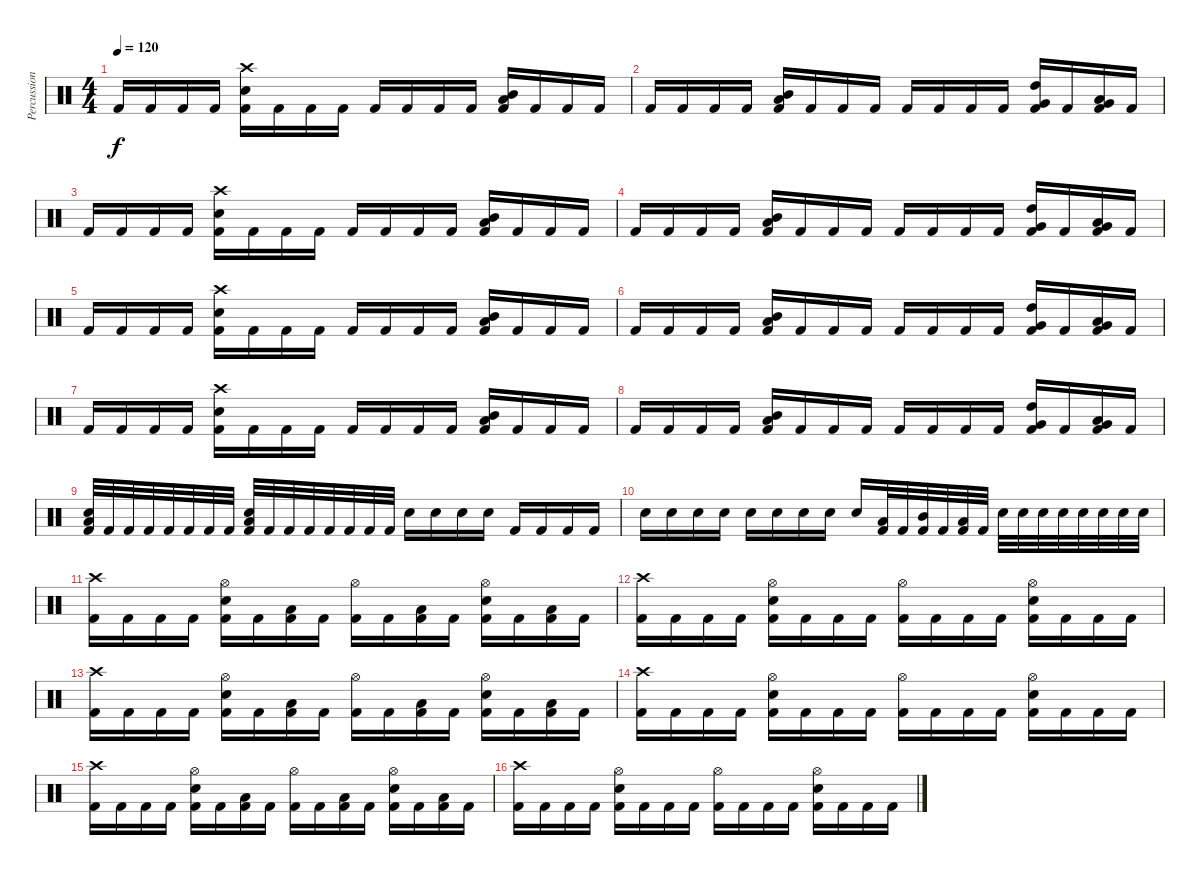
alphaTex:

\track ("Percussion" "Percussion") {instrument percussion}
\staff {score}
\articulation defaults
\ts (4 4)
\tempo 120
\clef neutral
\ks c "Kick (hit) 2".16{dy f} "Kick (hit) 2".16 "Kick (hit) 2".16 "Kick (hit) 2".16
("Kick (hit) 2" "Snare (hit) 2" "Crash high (hit)").16 "Kick (hit) 2".16 "Kick (hit) 2".16 "Kick (hit) 2".16 "Kick (hit) 2".16 "Kick (hit) 2".16 "Kick (hit) 2".16 "Kick (hit) 2".16 ("Kick (hit) 2" "Low Tom (hit)" "Mid Tom (hit)").16 "Kick (hit) 2".16 "Kick (hit) 2".16 "Kick (hit) 2".16 |
"Kick (hit) 2".16 "Kick (hit) 2".16 "Kick (hit) 2".16 "Kick (hit) 2".16 ("Kick (hit) 2" "Mid Tom (hit)" "Low Tom (hit)").16 "Kick (hit) 2".16 "Kick (hit) 2".16 "Kick (hit) 2".16 "Kick (hit) 2".16 "Kick (hit) 2".16 "Kick (hit) 2".16 "Kick (hit) 2".16 ("Kick (hit) 2" "Very Low Tom (hit)" "High Tom (hit)").16 "Kick (hit) 2".16 ("Kick (hit) 2" "Low Floor Tom (hit)" "Very Low Tom (hit)").16 "Kick (hit) 2".16 |
"Kick (hit) 2".16 "Kick (hit) 2".16 "Kick (hit) 2".16 "Kick (hit) 2".16 ("Kick (hit) 2" "Snare (hit) 2" "Crash high (hit)").16 "Kick (hit) 2".16 "Kick (hit) 2".16 "Kick (hit) 2".16 "Kick (hit) 2".16 "Kick (hit) 2".16 "Kick (hit) 2".16 "Kick (hit) 2".16 ("Kick (hit) 2" "Low Tom (hit)" "Mid Tom (hit)").16 "Kick (hit) 2".16 "Kick (hit) 2".16 "Kick (hit) 2".16 |
"Kick (hit) 2".16 "Kick (hit) 2".16 "Kick (hit) 2".16 "Kick (hit) 2".16 ("Kick (hit) 2" "Mid Tom (hit)" "Low Tom (hit)").16 "Kick (hit) 2".16 "Kick (hit) 2".16 "Kick (hit) 2".16 "Kick (hit) 2".16 "Kick (hit) 2".16 "Kick (hit) 2".16 "Kick (hit) 2".16 ("Kick (hit) 2" "Very Low Tom (hit)" "High Tom (hit)").16 "Kick (hit) 2".16 ("Kick (hit) 2" "Low Floor Tom (hit)" "Very Low Tom (hit)").16 "Kick (hit) 2".16 |
"Kick (hit) 2".16 "Kick (hit) 2".16 "Kick (hit) 2".16 "Kick (hit) 2".16 ("Kick (hit) 2" "Snare (hit) 2" "Crash high (hit)").16 "Kick (hit) 2".16 "Kick (hit) 2".16 "Kick (hit) 2".16 "Kick (hit) 2".16 "Kick (hit) 2".16 "Kick (hit) 2".16 "Kick (hit) 2".16 ("Kick (hit) 2" "Low Tom (hit)" "Mid Tom (hit)").16 "Kick (hit) 2".16 "Kick (hit) 2".16 "Kick (hit) 2".16 |
"Kick (hit) 2".16 "Kick (hit) 2".16 "Kick (hit) 2".16 "Kick (hit) 2".16 ("Kick (hit) 2" "Mid Tom (hit)" "Low Tom (hit)").16 "Kick (hit) 2".16 "Kick (hit) 2".16 "Kick (hit) 2".16 "Kick (hit) 2".16 "Kick (hit) 2".16 "Kick (hit) 2".16 "Kick (hit) 2".16 ("Kick (hit) 2" "Very Low Tom (hit)" "High Tom (hit)").16 "Kick (hit) 2".16 ("Kick (hit) 2" "Low Floor Tom (hit)" "Very Low Tom (hit)").16 "Kick (hit) 2".16 |
"Kick (hit) 2".16 "Kick (hit) 2".16 "Kick (hit) 2".16 "Kick (hit) 2".16 ("Kick (hit) 2" "Snare (hit) 2" "Crash high (hit)").16 "Kick (hit) 2".16 "Kick (hit) 2".16 "Kick (hit) 2".16 "Kick (hit) 2".16 "Kick (hit) 2".16 "Kick (hit) 2".16 "Kick (hit) 2".16 ("Kick (hit) 2" "Low Tom (hit)" "Mid Tom (hit)").16 "Kick (hit) 2".16 "Kick (hit) 2".16 "Kick (hit) 2".16 |
"Kick (hit) 2".16 "Kick (hit) 2".16 "Kick (hit) 2".16 "Kick (hit) 2".16 ("Kick (hit) 2" "Mid Tom (hit)" "Low Tom (hit)").16 "Kick (hit) 2".16 "Kick (hit) 2".16 "Kick (hit) 2".16 "Kick (hit) 2".16 "Kick (hit) 2".16 "Kick (hit) 2".16 "Kick (hit) 2".16 ("Kick (hit) 2" "Very Low Tom (hit)" "High Tom (hit)").16 "Kick (hit) 2".16 ("Kick (hit) 2" "Low Floor Tom (hit)" "Very Low Tom (hit)").16 "Kick (hit) 2".16 |
("Kick (hit) 2" "Snare (hit) 2" "Low Floor Tom (hit)").32 "Kick (hit) 2".32 "Kick (hit) 2".32 "Kick (hit) 2".32 "Kick (hit) 2".32 "Kick (hit) 2".32 "Kick (hit) 2".32 "Kick (hit) 2".32 ("Kick (hit) 2" "Snare (hit) 2" "Low Floor Tom (hit)").32 "Kick (hit) 2".32 "Kick (hit) 2".32 "Kick (hit) 2".32 "Kick (hit) 2".32 "Kick (hit) 2".32 "Kick (hit) 2".32 "Kick (hit) 2".32 "Snare (hit) 2".16 "Snare (hit) 2".16 "Snare (hit) 2".16 "Snare (hit) 2".16 "Kick (hit) 2".16 "Kick (hit) 2".16 "Kick (hit) 2".16 "Kick (hit) 2".16 |
"Snare (hit) 2".16 "Snare (hit) 2".16 "Snare (hit) 2".16 "Snare (hit) 2".16 "Snare (hit) 2".16 "Snare (hit) 2".16 "Snare (hit) 2".16 "Snare (hit) 2".16 "Snare (hit) 2".16 ("Kick (hit) 2" "Low Tom (hit)").32 "Kick (hit) 2".32 ("Kick (hit) 2" "Mid Tom (hit)").32 "Kick (hit) 2".32 ("Kick (hit) 2" "Low Floor Tom (hit)").32 "Kick (hit) 2".32 "Snare (hit) 2".32 "Snare (hit) 2".32 "Snare (hit) 2".32 "Snare (hit) 2".32 "Snare (hit) 2".32 "Snare (hit) 2".32 "Snare (hit) 2".32 "Snare (hit) 2".32 |
("Kick (hit) 2" "Crash high (hit)").16 "Kick (hit) 2".16 "Kick (hit) 2".16 "Kick (hit) 2".16 ("Kick (hit) 2" "Snare (hit) 2" "Hi-Hat (open)").16 "Kick (hit) 2".16 ("Kick (hit) 2" "Low Tom (hit)").16 "Kick (hit) 2".16 ("Kick (hit) 2" "Hi-Hat (open)").16 "Kick (hit) 2".16 ("Kick (hit) 2" "Low Tom (hit)").16 "Kick (hit) 2".16 ("Kick (hit) 2" "Snare (hit) 2" "Hi-Hat (open)").16 "Kick (hit) 2".16 ("Kick (hit) 2" "Low Floor Tom (hit)").16 "Kick (hit) 2".16 |
("Kick (hit) 2" "Crash high (hit)").16 "Kick (hit) 2".16 "Kick (hit) 2".16 "Kick (hit) 2".16 ("Kick (hit) 2" "Snare (hit) 2" "Hi-Hat (open)").16 "Kick (hit) 2".16 "Kick (hit) 2".16 "Kick (hit) 2".16 ("Kick (hit) 2" "Hi-Hat (open)").16 "Kick (hit) 2".16 "Kick (hit) 2".16 "Kick (hit) 2".16 ("Kick (hit) 2" "Snare (hit) 2" "Hi-Hat (open)").16 "Kick (hit) 2".16 "Kick (hit) 2".16 "Kick (hit) 2".16 |
("Kick (hit) 2" "Crash high (hit)").16 "Kick (hit) 2".16 "Kick (hit) 2".16 "Kick (hit) 2".16 ("Kick (hit) 2" "Snare (hit) 2" "Hi-Hat (open)").16 "Kick (hit) 2".16 ("Kick (hit) 2" "Low Tom (hit)").16 "Kick (hit) 2".16 ("Kick (hit) 2" "Hi-Hat (open)").16 "Kick (hit) 2".16 ("Kick (hit) 2" "Low Tom (hit)").16 "Kick (hit) 2".16 ("Kick (hit) 2" "Snare (hit) 2" "Hi-Hat (open)").16 "Kick (hit) 2".16 ("Kick (hit) 2" "Low Floor Tom (hit)").16 "Kick (hit) 2".16 |
("Kick (hit) 2" "Crash high (hit)").16 "Kick (hit) 2".16 "Kick (hit) 2".16 "Kick (hit) 2".16 ("Kick (hit) 2" "Snare (hit) 2" "Hi-Hat (open)").16 "Kick (hit) 2".16 "Kick (hit) 2".16 "Kick (hit) 2".16 ("Kick (hit) 2" "Hi-Hat (open)").16 "Kick (hit) 2".16 "Kick (hit) 2".16 "Kick (hit) 2".16 ("Kick (hit) 2" "Snare (hit) 2" "Hi-Hat (open)").16 "Kick (hit) 2".16 "Kick (hit) 2".16 "Kick (hit) 2".16 |
("Kick (hit) 2" "Crash high (hit)").16 "Kick (hit) 2".16 "Kick (hit) 2".16 "Kick (hit) 2".16 ("Kick (hit) 2" "Snare (hit) 2" "Hi-Hat (open)").16 "Kick (hit) 2".16 ("Kick (hit) 2" "Low Tom (hit)").16 "Kick (hit) 2".16 ("Kick (hit) 2" "Hi-Hat (open)").16 "Kick (hit) 2".16 ("Kick (hit) 2" "Low Tom (hit)").16 "Kick (hit) 2".16 ("Kick (hit) 2" "Snare (hit) 2" "Hi-Hat (open)").16 "Kick (hit) 2".16 ("Kick (hit) 2" "Low Floor Tom (hit)").16 "Kick (hit) 2".16 |
("Kick (hit) 2" "Crash high (hit)").16 "Kick (hit) 2".16 "Kick (hit) 2".16 "Kick (hit) 2".16 ("Kick (hit) 2" "Snare (hit) 2" "Hi-Hat (open)").16 "Kick (hit) 2".16 "Kick (hit) 2".16 "Kick (hit) 2".16 ("Kick (hit) 2" "Hi-Hat (open)").16 "Kick (hit) 2".16 "Kick (hit) 2".16 "Kick (hit) 2".16 ("Kick (hit) 2" "Snare (hit) 2" "Hi-Hat (open)").16 "Kick (hit) 2".16 "Kick (hit) 2".16 "Kick (hit) 2".16
